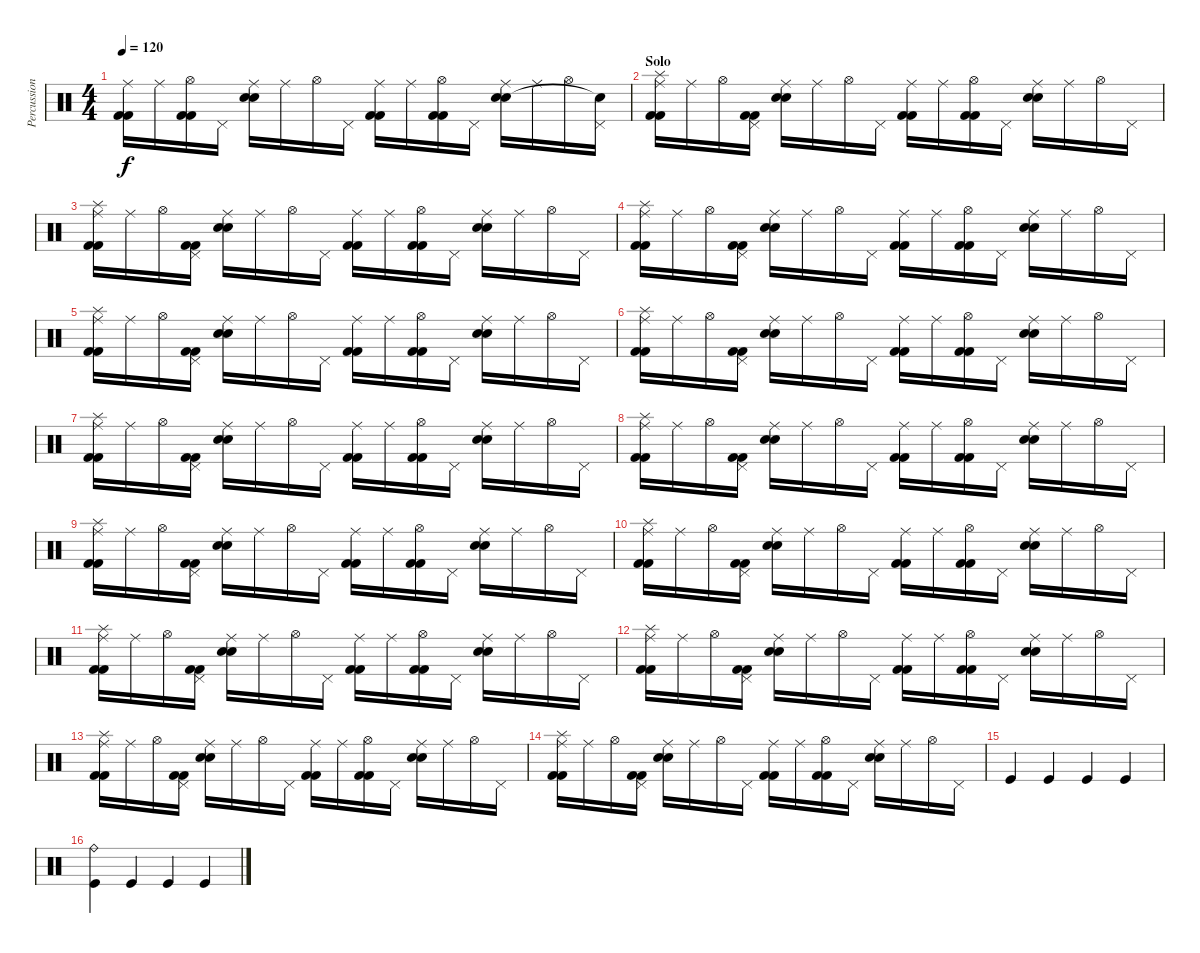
\track ("Percussion" "Percussion") {instrument percussion}
\staff {score}
\articulation defaults
\ts (4 4)
\tempo 120
\clef neutral
\ks c
("Ride (middle)" "Kick (hit) 2" "Kick (hit) 2").16{dy f} "Ride (middle)".16 ("Hi-Hat (open)" "Kick (hit) 2" "Kick (hit) 2").16 "Pedal Hi-Hat (hit)".16 ("Ride (middle)" "Electric Snare (hit)" "Electric Snare (hit)").16 "Ride (middle)".16 "Hi-Hat (open)".16 "Pedal Hi-Hat (hit)".16 ("Ride (middle)" "Kick (hit) 2" "Kick (hit) 2").16 "Ride (middle)".16 ("Hi-Hat (open)" "Kick (hit) 2" "Kick (hit) 2").16 "Pedal Hi-Hat (hit)".16 ("Ride (middle)" "Electric Snare (hit)" "Electric Snare (hit)").16 "Ride (middle)".16 "Hi-Hat (open)".16 ("Pedal Hi-Hat (hit)" "Snare (hit)"{t}).16 |
\section ("" "Solo")
("Ride (middle)" "Splash (hit)" "Kick (hit) 2" "Kick (hit) 2").16 "Ride (middle)".16 "Hi-Hat (open)".16 ("Pedal Hi-Hat (hit)" "Kick (hit) 2" "Kick (hit) 2").16 ("Ride (middle)" "Electric Snare (hit)" "Electric Snare (hit)").16 "Ride (middle)".16 "Hi-Hat (open)".16 "Pedal Hi-Hat (hit)".16 ("Ride (middle)" "Kick (hit) 2" "Kick (hit) 2").16 "Ride (middle)".16 ("Hi-Hat (open)" "Kick (hit) 2" "Kick (hit) 2").16 "Pedal Hi-Hat (hit)".16 ("Ride (middle)" "Electric Snare (hit)" "Electric Snare (hit)").16 "Ride (middle)".16 "Hi-Hat (open)".16 "Pedal Hi-Hat (hit)".16 |
("Ride (middle)" "Splash (hit)" "Kick (hit) 2" "Kick (hit) 2").16 "Ride (middle)".16 "Hi-Hat (open)".16 ("Pedal Hi-Hat (hit)" "Kick (hit) 2" "Kick (hit) 2").16 ("Ride (middle)" "Electric Snare (hit)" "Electric Snare (hit)").16 "Ride (middle)".16 "Hi-Hat (open)".16 "Pedal Hi-Hat (hit)".16 ("Ride (middle)" "Kick (hit) 2" "Kick (hit) 2").16 "Ride (middle)".16 ("Hi-Hat (open)" "Kick (hit) 2" "Kick (hit) 2").16 "Pedal Hi-Hat (hit)".16 ("Ride (middle)" "Electric Snare (hit)" "Electric Snare (hit)").16 "Ride (middle)".16 "Hi-Hat (open)".16 "Pedal Hi-Hat (hit)".16 |
("Ride (middle)" "Splash (hit)" "Kick (hit) 2" "Kick (hit) 2").16 "Ride (middle)".16 "Hi-Hat (open)".16 ("Pedal Hi-Hat (hit)" "Kick (hit) 2" "Kick (hit) 2").16 ("Ride (middle)" "Electric Snare (hit)" "Electric Snare (hit)").16 "Ride (middle)".16 "Hi-Hat (open)".16 "Pedal Hi-Hat (hit)".16 ("Ride (middle)" "Kick (hit) 2" "Kick (hit) 2").16 "Ride (middle)".16 ("Hi-Hat (open)" "Kick (hit) 2" "Kick (hit) 2").16 "Pedal Hi-Hat (hit)".16 ("Ride (middle)" "Electric Snare (hit)" "Electric Snare (hit)").16 "Ride (middle)".16 "Hi-Hat (open)".16 "Pedal Hi-Hat (hit)".16 |
("Ride (middle)" "Splash (hit)" "Kick (hit) 2" "Kick (hit) 2").16 "Ride (middle)".16 "Hi-Hat (open)".16 ("Pedal Hi-Hat (hit)" "Kick (hit) 2" "Kick (hit) 2").16 ("Ride (middle)" "Electric Snare (hit)" "Electric Snare (hit)").16 "Ride (middle)".16 "Hi-Hat (open)".16 "Pedal Hi-Hat (hit)".16 ("Ride (middle)" "Kick (hit) 2" "Kick (hit) 2").16 "Ride (middle)".16 ("Hi-Hat (open)" "Kick (hit) 2" "Kick (hit) 2").16 "Pedal Hi-Hat (hit)".16 ("Ride (middle)" "Electric Snare (hit)" "Electric Snare (hit)").16 "Ride (middle)".16 "Hi-Hat (open)".16 "Pedal Hi-Hat (hit)".16 |
("Ride (middle)" "Splash (hit)" "Kick (hit) 2" "Kick (hit) 2").16 "Ride (middle)".16 "Hi-Hat (open)".16 ("Pedal Hi-Hat (hit)" "Kick (hit) 2" "Kick (hit) 2").16 ("Ride (middle)" "Electric Snare (hit)" "Electric Snare (hit)").16 "Ride (middle)".16 "Hi-Hat (open)".16 "Pedal Hi-Hat (hit)".16 ("Ride (middle)" "Kick (hit) 2" "Kick (hit) 2").16 "Ride (middle)".16 ("Hi-Hat (open)" "Kick (hit) 2" "Kick (hit) 2").16 "Pedal Hi-Hat (hit)".16 ("Ride (middle)" "Electric Snare (hit)" "Electric Snare (hit)").16 "Ride (middle)".16 "Hi-Hat (open)".16 "Pedal Hi-Hat (hit)".16 |
("Ride (middle)" "Splash (hit)" "Kick (hit) 2" "Kick (hit) 2").16 "Ride (middle)".16 "Hi-Hat (open)".16 ("Pedal Hi-Hat (hit)" "Kick (hit) 2" "Kick (hit) 2").16 ("Ride (middle)" "Electric Snare (hit)" "Electric Snare (hit)").16 "Ride (middle)".16 "Hi-Hat (open)".16 "Pedal Hi-Hat (hit)".16 ("Ride (middle)" "Kick (hit) 2" "Kick (hit) 2").16 "Ride (middle)".16 ("Hi-Hat (open)" "Kick (hit) 2" "Kick (hit) 2").16 "Pedal Hi-Hat (hit)".16 ("Ride (middle)" "Electric Snare (hit)" "Electric Snare (hit)").16 "Ride (middle)".16 "Hi-Hat (open)".16 "Pedal Hi-Hat (hit)".16 |
("Ride (middle)" "Splash (hit)" "Kick (hit) 2" "Kick (hit) 2").16 "Ride (middle)".16 "Hi-Hat (open)".16 ("Pedal Hi-Hat (hit)" "Kick (hit) 2" "Kick (hit) 2").16 ("Ride (middle)" "Electric Snare (hit)" "Electric Snare (hit)").16 "Ride (middle)".16 "Hi-Hat (open)".16 "Pedal Hi-Hat (hit)".16 ("Ride (middle)" "Kick (hit) 2" "Kick (hit) 2").16 "Ride (middle)".16 ("Hi-Hat (open)" "Kick (hit) 2" "Kick (hit) 2").16 "Pedal Hi-Hat (hit)".16 ("Ride (middle)" "Electric Snare (hit)" "Electric Snare (hit)").16 "Ride (middle)".16 "Hi-Hat (open)".16 "Pedal Hi-Hat (hit)".16 |
("Ride (middle)" "Splash (hit)" "Kick (hit) 2" "Kick (hit) 2").16 "Ride (middle)".16 "Hi-Hat (open)".16 ("Pedal Hi-Hat (hit)" "Kick (hit) 2" "Kick (hit) 2").16 ("Ride (middle)" "Electric Snare (hit)" "Electric Snare (hit)").16 "Ride (middle)".16 "Hi-Hat (open)".16 "Pedal Hi-Hat (hit)".16 ("Ride (middle)" "Kick (hit) 2" "Kick (hit) 2").16 "Ride (middle)".16 ("Hi-Hat (open)" "Kick (hit) 2" "Kick (hit) 2").16 "Pedal Hi-Hat (hit)".16 ("Ride (middle)" "Electric Snare (hit)" "Electric Snare (hit)").16 "Ride (middle)".16 "Hi-Hat (open)".16 "Pedal Hi-Hat (hit)".16 |
("Ride (middle)" "Splash (hit)" "Kick (hit) 2" "Kick (hit) 2").16 "Ride (middle)".16 "Hi-Hat (open)".16 ("Pedal Hi-Hat (hit)" "Kick (hit) 2" "Kick (hit) 2").16 ("Ride (middle)" "Electric Snare (hit)" "Electric Snare (hit)").16 "Ride (middle)".16 "Hi-Hat (open)".16 "Pedal Hi-Hat (hit)".16 ("Ride (middle)" "Kick (hit) 2" "Kick (hit) 2").16 "Ride (middle)".16 ("Hi-Hat (open)" "Kick (hit) 2" "Kick (hit) 2").16 "Pedal Hi-Hat (hit)".16 ("Ride (middle)" "Electric Snare (hit)" "Electric Snare (hit)").16 "Ride (middle)".16 "Hi-Hat (open)".16 "Pedal Hi-Hat (hit)".16 |
("Ride (middle)" "Splash (hit)" "Kick (hit) 2" "Kick (hit) 2").16 "Ride (middle)".16 "Hi-Hat (open)".16 ("Pedal Hi-Hat (hit)" "Kick (hit) 2" "Kick (hit) 2").16 ("Ride (middle)" "Electric Snare (hit)" "Electric Snare (hit)").16 "Ride (middle)".16 "Hi-Hat (open)".16 "Pedal Hi-Hat (hit)".16 ("Ride (middle)" "Kick (hit) 2" "Kick (hit) 2").16 "Ride (middle)".16 ("Hi-Hat (open)" "Kick (hit) 2" "Kick (hit) 2").16 "Pedal Hi-Hat (hit)".16 ("Ride (middle)" "Electric Snare (hit)" "Electric Snare (hit)").16 "Ride (middle)".16 "Hi-Hat (open)".16 "Pedal Hi-Hat (hit)".16 |
("Ride (middle)" "Splash (hit)" "Kick (hit) 2" "Kick (hit) 2").16 "Ride (middle)".16 "Hi-Hat (open)".16 ("Pedal Hi-Hat (hit)" "Kick (hit) 2" "Kick (hit) 2").16 ("Ride (middle)" "Electric Snare (hit)" "Electric Snare (hit)").16 "Ride (middle)".16 "Hi-Hat (open)".16 "Pedal Hi-Hat (hit)".16 ("Ride (middle)" "Kick (hit) 2" "Kick (hit) 2").16 "Ride (middle)".16 ("Hi-Hat (open)" "Kick (hit) 2" "Kick (hit) 2").16 "Pedal Hi-Hat (hit)".16 ("Ride (middle)" "Electric Snare (hit)" "Electric Snare (hit)").16 "Ride (middle)".16 "Hi-Hat (open)".16 "Pedal Hi-Hat (hit)".16 |
("Ride (middle)" "Splash (hit)" "Kick (hit) 2" "Kick (hit) 2").16 "Ride (middle)".16 "Hi-Hat (open)".16 ("Pedal Hi-Hat (hit)" "Kick (hit) 2" "Kick (hit) 2").16 ("Ride (middle)" "Electric Snare (hit)" "Electric Snare (hit)").16 "Ride (middle)".16 "Hi-Hat (open)".16 "Pedal Hi-Hat (hit)".16 ("Ride (middle)" "Kick (hit) 2" "Kick (hit) 2").16 "Ride (middle)".16 ("Hi-Hat (open)" "Kick (hit) 2" "Kick (hit) 2").16 "Pedal Hi-Hat (hit)".16 ("Ride (middle)" "Electric Snare (hit)" "Electric Snare (hit)").16 "Ride (middle)".16 "Hi-Hat (open)".16 "Pedal Hi-Hat (hit)".16 |
("Ride (middle)" "Splash (hit)" "Kick (hit) 2" "Kick (hit) 2").16 "Ride (middle)".16 "Hi-Hat (open)".16 ("Pedal Hi-Hat (hit)" "Kick (hit) 2" "Kick (hit) 2").16 ("Ride (middle)" "Electric Snare (hit)" "Electric Snare (hit)").16 "Ride (middle)".16 "Hi-Hat (open)".16 "Pedal Hi-Hat (hit)".16 ("Ride (middle)" "Kick (hit) 2" "Kick (hit) 2").16 "Ride (middle)".16 ("Hi-Hat (open)" "Kick (hit) 2" "Kick (hit) 2").16 "Pedal Hi-Hat (hit)".16 ("Ride (middle)" "Electric Snare (hit)" "Electric Snare (hit)").16 "Ride (middle)".16 "Hi-Hat (open)".16 "Pedal Hi-Hat (hit)".16 |
"Kick (hit)".4 "Kick (hit)".4 "Kick (hit)".4 "Kick (hit)".4 |
("Ride (bell)" "Kick (hit)").4 "Kick (hit)".4 "Kick (hit)".4 "Kick (hit)".4
